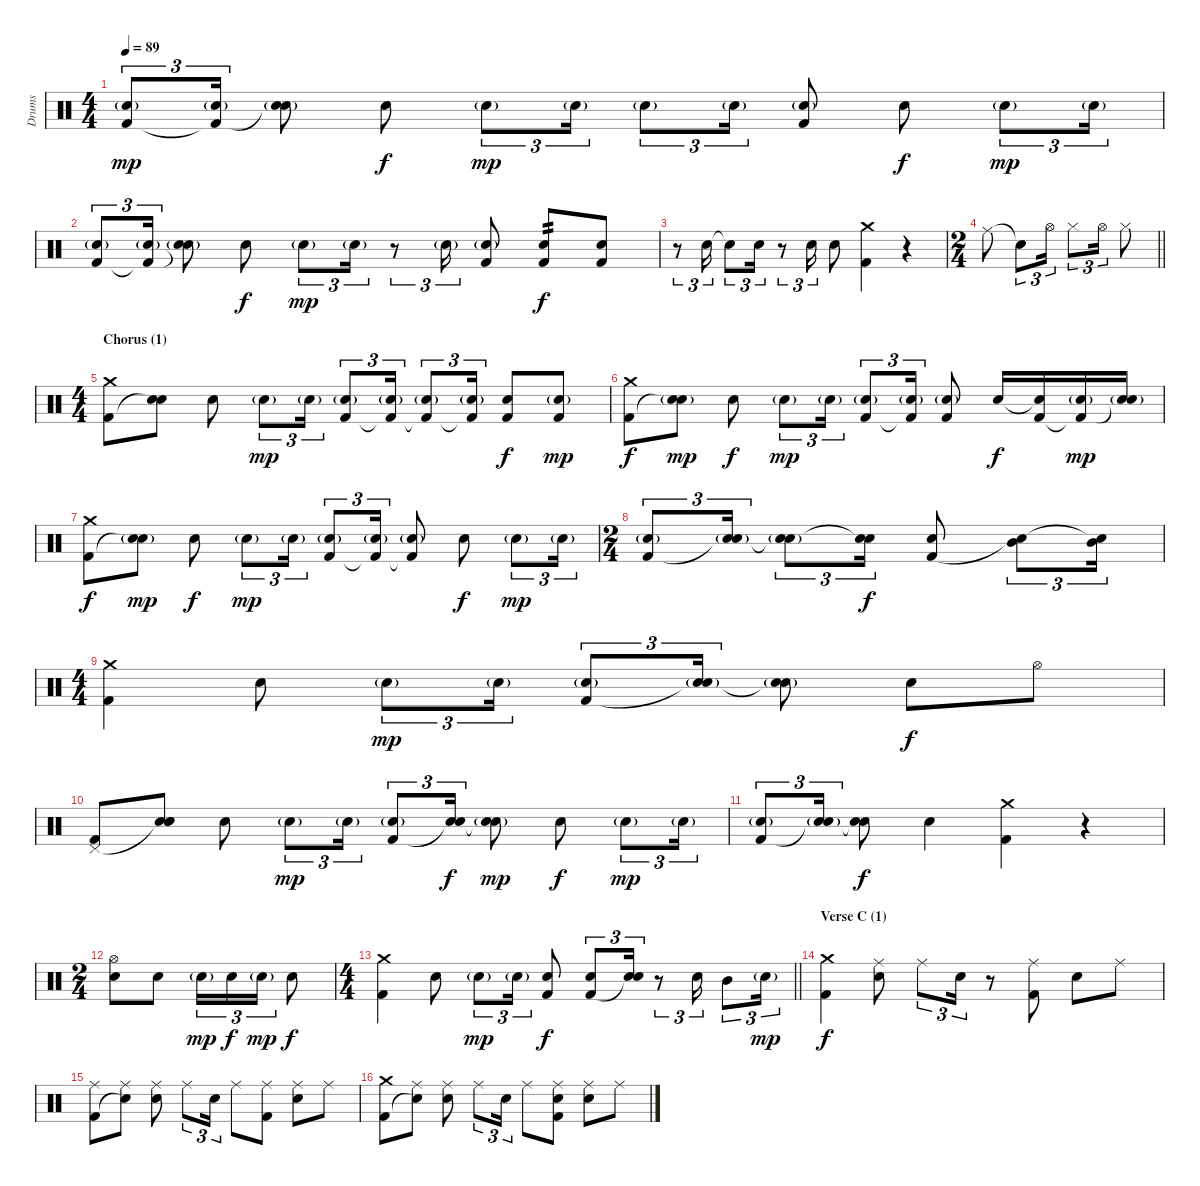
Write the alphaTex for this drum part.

\track ("Drums" "Drums") {instrument percussion}
\staff {score}
\articulation defaults
\ts (4 4)
\tempo 89
\clef neutral
\ks c
("Electric Snare (hit)"{g} "Kick (hit) 2").8{tu (3 2) dy mp} ("Electric Snare (hit)"{g} "Kick (hit) 2"{t}).16{tu (3 2)} ("Electric Snare (hit)"{g} "Snare (hit)"{t}).8 "Electric Snare (hit)".8{dy f} "Electric Snare (hit)"{g}.8{tu (3 2) dy mp} "Electric Snare (hit)"{g}.16{tu (3 2)} "Electric Snare (hit)"{g}.8{tu (3 2)} "Electric Snare (hit)"{g}.16{tu (3 2)} ("Electric Snare (hit)"{g} "Kick (hit) 2").8 "Electric Snare (hit)".8{dy f} "Electric Snare (hit)"{g}.8{tu (3 2) dy mp} "Electric Snare (hit)"{g}.16{tu (3 2)} |
("Electric Snare (hit)"{g} "Kick (hit) 2").8{tu (3 2)} ("Electric Snare (hit)"{g} "Kick (hit) 2"{t}).16{tu (3 2)} ("Electric Snare (hit)"{g} "Snare (hit)"{t}).8 "Electric Snare (hit)".8{dy f} "Electric Snare (hit)"{g}.8{tu (3 2) dy mp} "Electric Snare (hit)"{g}.16{tu (3 2)} r.8{tu (3 2)} "Electric Snare (hit)"{g}.16{tu (3 2)} ("Electric Snare (hit)"{g} "Kick (hit) 2").8 ("Electric Snare (hit)" "Kick (hit) 2").8{tp 2 dy f} ("Electric Snare (hit)" "Kick (hit) 2").8 |
r.8{tu (3 2)} "Electric Snare (hit)".16{tu (3 2)} "Snare (hit)"{t}.8{tu (3 2)} "Electric Snare (hit)".16{tu (3 2)} r.8{tu (3 2)} "Electric Snare (hit)".16{tu (3 2)} "Electric Snare (hit)".8 ("Crash medium (hit)" "Kick (hit) 2").4 r.4 |
\ts (2 4)
\barLineRight lightlight "Ride (middle)".8 "Snare (hit)"{t}.8{tu (3 2)} "Hi-Hat (open)".16{tu (3 2)} "Hi-Hat (closed)".8{tu (3 2)} "Hi-Hat (open)".16{tu (3 2)} "Hi-Hat (closed)".8
|
\ts (4 4)
\section ("" "Chorus (1)")
("Crash medium (hit)" "Kick (hit) 2").8 ("Electric Snare (hit)" "Snare (hit)"{t}).8 "Electric Snare (hit)".8 "Electric Snare (hit)"{g}.8{tu (3 2) dy mp} "Electric Snare (hit)"{g}.16{tu (3 2)} ("Electric Snare (hit)"{g} "Kick (hit) 2").8{tu (3 2)} ("Electric Snare (hit)"{g} "Kick (hit) 2"{t}).16{tu (3 2)} ("Electric Snare (hit)"{g} "Kick (hit) 2"{t}).8{tu (3 2)} ("Electric Snare (hit)"{g} "Kick (hit) 2"{t}).16{tu (3 2)} ("Electric Snare (hit)" "Kick (hit) 2").8{dy f} ("Electric Snare (hit)"{g} "Kick (hit) 2").8{dy mp} |
("Crash medium (hit)" "Kick (hit) 2").8{dy f} ("Electric Snare (hit)"{g} "Snare (hit)"{t}).8{dy mp} "Electric Snare (hit)".8{dy f} "Electric Snare (hit)"{g}.8{tu (3 2) dy mp} "Electric Snare (hit)"{g}.16{tu (3 2)} ("Electric Snare (hit)"{g} "Kick (hit) 2").8{tu (3 2)} ("Electric Snare (hit)"{g} "Kick (hit) 2"{t}).16{tu (3 2)} ("Electric Snare (hit)"{g} "Kick (hit) 2").8 "Electric Snare (hit)".16{dy f} ("Snare (hit)"{t} "Kick (hit) 2").16 ("Electric Snare (hit)"{g} "Kick (hit) 2"{t}).16{dy mp} ("Electric Snare (hit)"{g} "Snare (hit)"{t}).16 |
("Crash medium (hit)" "Kick (hit) 2").8{dy f} ("Electric Snare (hit)"{g} "Snare (hit)"{t}).8{dy mp} "Electric Snare (hit)".8{dy f} "Electric Snare (hit)"{g}.8{tu (3 2) dy mp} "Electric Snare (hit)"{g}.16{tu (3 2)} ("Electric Snare (hit)"{g} "Kick (hit) 2").8{tu (3 2)} ("Electric Snare (hit)"{g} "Kick (hit) 2"{t}).16{tu (3 2)} ("Electric Snare (hit)"{g} "Kick (hit) 2"{t}).8 "Electric Snare (hit)".8{dy f} "Electric Snare (hit)"{g}.8{tu (3 2) dy mp} "Electric Snare (hit)"{g}.16{tu (3 2)} |
\ts (2 4)
("Electric Snare (hit)"{g} "Kick (hit) 2").8{tu (3 2)} ("Electric Snare (hit)"{g} "Snare (hit)"{t}).16{tu (3 2)} ("Electric Snare (hit)"{g} "Snare (hit)"{t}).8{tu (3 2)} ("Electric Snare (hit)" "Snare (hit)"{t}).16{tu (3 2) dy f} ("Electric Snare (hit)" "Kick (hit) 2").8 ("Mid Tom (hit)" "Snare (hit)"{t}).8{tu (3 2)} ("Mid Tom (hit)" "Snare (hit)"{t}).16{tu (3 2)} |
\ts (4 4)
("Crash medium (hit)" "Kick (hit) 2").4 "Electric Snare (hit)".8 "Electric Snare (hit)"{g}.8{tu (3 2) dy mp} "Electric Snare (hit)"{g}.16{tu (3 2)} ("Electric Snare (hit)"{g} "Kick (hit) 2").8{tu (3 2)} ("Electric Snare (hit)"{g} "Snare (hit)"{t}).16{tu (3 2)} ("Electric Snare (hit)"{g} "Snare (hit)"{t}).8 "Electric Snare (hit)".8{dy f} "Hi-Hat (open)".8 |
("Pedal Hi-Hat (hit)" "Kick (hit) 2").8 ("Snare (hit)"{t} "Electric Snare (hit)" "Snare (hit)").8 "Electric Snare (hit)".8 "Electric Snare (hit)"{g}.8{tu (3 2) dy mp} "Electric Snare (hit)"{g}.16{tu (3 2)} ("Electric Snare (hit)"{g} "Kick (hit) 2").8{tu (3 2)} ("Electric Snare (hit)" "Snare (hit)"{t}).16{tu (3 2) dy f} ("Electric Snare (hit)"{g} "Snare (hit)"{t}).8{dy mp} "Electric Snare (hit)".8{dy f} "Electric Snare (hit)"{g}.8{tu (3 2) dy mp} "Electric Snare (hit)"{g}.16{tu (3 2)} |
("Electric Snare (hit)"{g} "Kick (hit) 2").8{tu (3 2)} ("Electric Snare (hit)"{g} "Snare (hit)"{t}).16{tu (3 2)} ("Electric Snare (hit)" "Snare (hit)"{t}).8{dy f} "Electric Snare (hit)".4 ("Crash medium (hit)" "Kick (hit) 2").4 r.4 |
\ts (2 4)
("Hi-Hat (open)" "Electric Snare (hit)").8 "Electric Snare (hit)".8 "Electric Snare (hit)"{g}.16{tu (3 2) dy mp} "Electric Snare (hit)".16{tu (3 2) dy f} "Electric Snare (hit)"{g}.16{tu (3 2) dy mp} "Electric Snare (hit)".8{dy f} |
\ts (4 4)
\barLineRight lightlight
("Crash medium (hit)" "Kick (hit) 2").4 "Electric Snare (hit)".8 "Electric Snare (hit)"{g}.8{tu (3 2) dy mp} "Electric Snare (hit)"{g}.16{tu (3 2)} ("Electric Snare (hit)" "Kick (hit) 2").8{dy f} ("Electric Snare (hit)" "Kick (hit) 2").8{tu (3 2)} ("Electric Snare (hit)" "Snare (hit)"{t}).16{tu (3 2)} r.8{tu (3 2)} "Electric Snare (hit)".16{tu (3 2)} "Mid Tom (hit)".8{tu (3 2)} "Electric Snare (hit)"{g}.16{tu (3 2) dy mp} |
\section ("" "Verse C (1)")
("Crash medium (hit)" "Kick (hit) 2").4{dy f} ("Ride (middle)" "Electric Snare (hit)").8 "Ride (middle)".8{tu (3 2)} "Electric Snare (hit)".16{tu (3 2)} r.8 ("Ride (middle)" "Kick (hit) 2").8 "Electric Snare (hit)".8 "Ride (middle)".8 |
("Ride (middle)" "Kick (hit) 2").8 ("Ride (middle)" "Snare (hit)"{t}).8 ("Ride (middle)" "Electric Snare (hit)").8 "Ride (middle)".8{tu (3 2)} "Electric Snare (hit)".16{tu (3 2)} "Ride (middle)".8 ("Ride (middle)" "Kick (hit) 2").8 ("Ride (middle)" "Electric Snare (hit)").8 "Ride (middle)".8 |
("Crash medium (hit)" "Kick (hit) 2").8 ("Ride (middle)" "Snare (hit)"{t}).8 ("Ride (middle)" "Electric Snare (hit)").8 "Ride (middle)".8{tu (3 2)} "Electric Snare (hit)".16{tu (3 2)} "Ride (middle)".8 ("Ride (middle)" "Electric Snare (hit)" "Kick (hit) 2").8 ("Ride (middle)" "Electric Snare (hit)").8 "Ride (middle)".8
